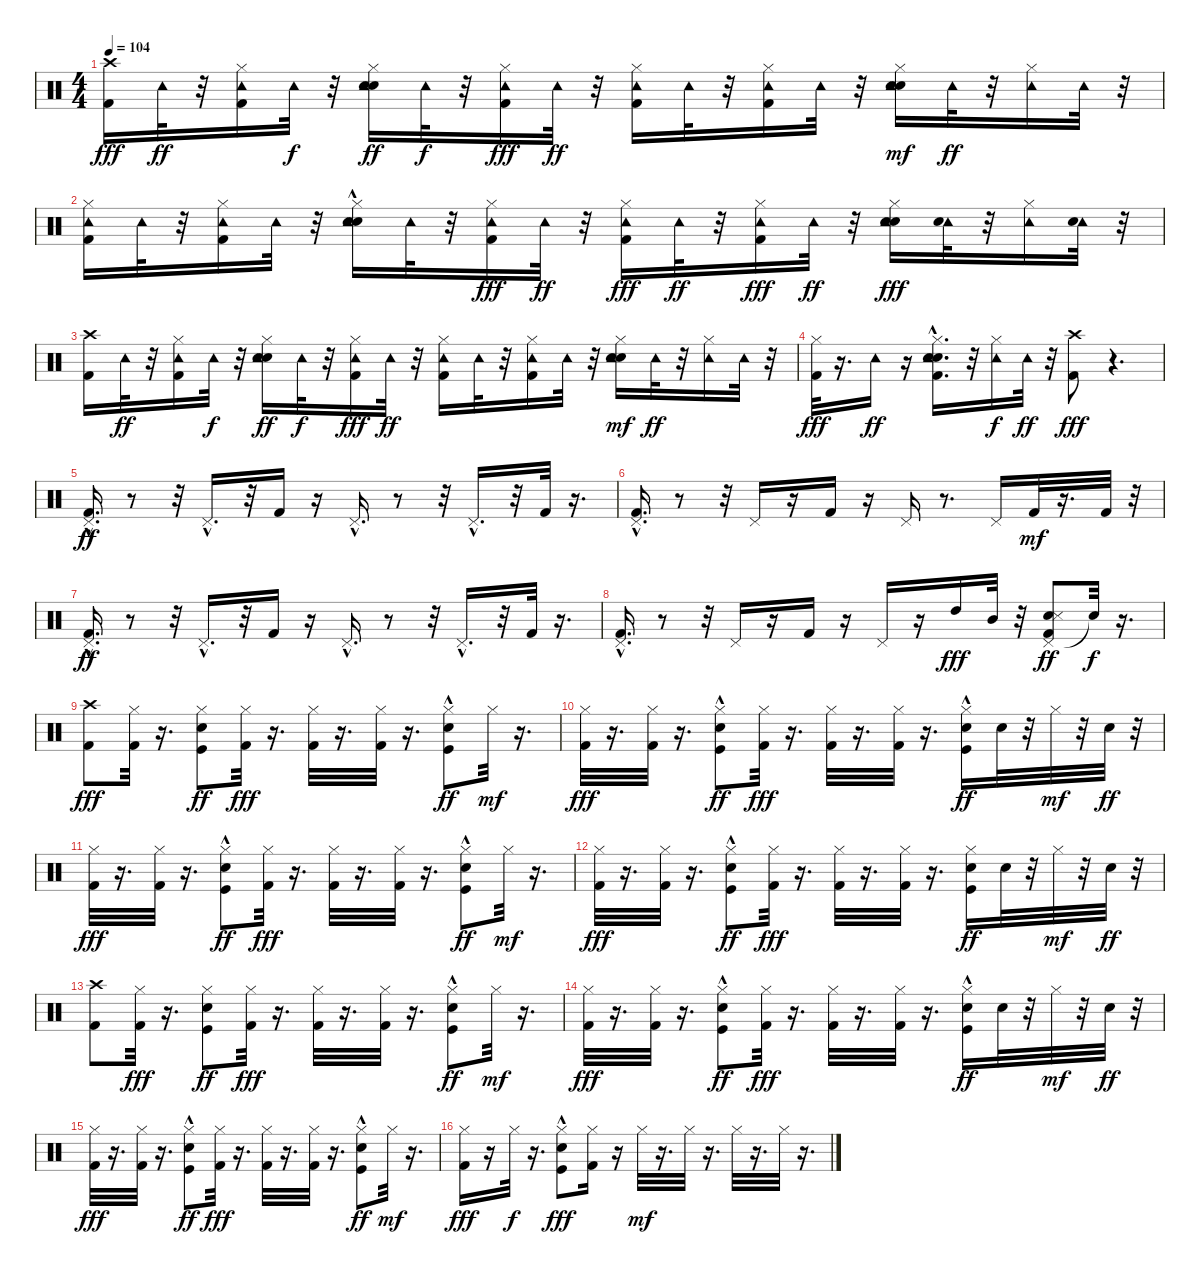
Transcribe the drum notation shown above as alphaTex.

\track "" {instrument percussion}
\staff {score}
\articulation defaults
\ts (4 4)
\tempo 104
\clef neutral
\ks c
("Kick (hit) 2" "Crash high (hit)").16{dy fff} "Tambourine (hit)".32{dy ff} r.32 ("Hi-Hat (closed)" "Kick (hit) 2" "Tambourine (hit)").16 "Tambourine (hit)".32{dy f} r.32 ("Hi-Hat (closed)" "Hand Clap (hit)" "Snare (hit) 2" "Tambourine (hit)").16{dy ff} "Tambourine (hit)".32{dy f} r.32 ("Hi-Hat (closed)" "Kick (hit) 2" "Tambourine (hit)").16{dy fff} "Tambourine (hit)".32{dy ff} r.32 ("Hi-Hat (closed)" "Kick (hit) 2" "Tambourine (hit)").16 "Tambourine (hit)".32 r.32 ("Hi-Hat (closed)" "Kick (hit) 2" "Tambourine (hit)").16 "Tambourine (hit)".32 r.32 ("Hi-Hat (closed)" "Hand Clap (hit)" "Snare (hit) 2" "Tambourine (hit)").16{dy mf} "Tambourine (hit)".32{dy ff} r.32 ("Hi-Hat (closed)" "Tambourine (hit)").16 "Tambourine (hit)".32 r.32 |
("Hi-Hat (closed)" "Kick (hit) 2" "Tambourine (hit)").16 "Tambourine (hit)".32 r.32 ("Hi-Hat (closed)" "Kick (hit) 2" "Tambourine (hit)").16 "Tambourine (hit)".32 r.32 ("Hi-Hat (closed)" "Hand Clap (hit)" "Snare (hit) 2"{hac} "Tambourine (hit)").16 "Tambourine (hit)".32 r.32 ("Hi-Hat (closed)" "Kick (hit) 2" "Tambourine (hit)").16{dy fff} "Tambourine (hit)".32{dy ff} r.32 ("Hi-Hat (closed)" "Kick (hit) 2" "Tambourine (hit)").16{dy fff} "Tambourine (hit)".32{dy ff} r.32 ("Hi-Hat (closed)" "Kick (hit) 2" "Tambourine (hit)").16{dy fff} "Tambourine (hit)".32{dy ff} r.32 ("Hand Clap (hit)" "Hi-Hat (closed)" "Snare (hit) 2" "Tambourine (hit)").16{dy fff} ("Tambourine (hit)" "Electric Snare (hit)").32 r.32 ("Hi-Hat (closed)" "Tambourine (hit)").16 ("Tambourine (hit)" "Electric Snare (hit)").32 r.32 |
("Kick (hit) 2" "Crash high (hit)").16 "Tambourine (hit)".32{dy ff} r.32 ("Hi-Hat (closed)" "Kick (hit) 2" "Tambourine (hit)").16 "Tambourine (hit)".32{dy f} r.32 ("Hi-Hat (closed)" "Hand Clap (hit)" "Snare (hit) 2" "Tambourine (hit)").16{dy ff} "Tambourine (hit)".32{dy f} r.32 ("Hi-Hat (closed)" "Kick (hit) 2" "Tambourine (hit)").16{dy fff} "Tambourine (hit)".32{dy ff} r.32 ("Hi-Hat (closed)" "Kick (hit) 2" "Tambourine (hit)").16 "Tambourine (hit)".32 r.32 ("Hi-Hat (closed)" "Kick (hit) 2" "Tambourine (hit)").16 "Tambourine (hit)".32 r.32 ("Hi-Hat (closed)" "Hand Clap (hit)" "Snare (hit) 2" "Tambourine (hit)").16{dy mf} "Tambourine (hit)".32{dy ff} r.32 ("Hi-Hat (closed)" "Tambourine (hit)").16 "Tambourine (hit)".32 r.32 |
("Hi-Hat (closed)" "Kick (hit) 2").32{dy fff} r.16{d} "Tambourine (hit)".16{dy ff} r.16 ("Hi-Hat (closed)" "Hand Clap (hit)" "Kick (hit) 2" "Snare (hit) 2"{hac} "Tambourine (hit)").16{d} r.32 ("Hi-Hat (closed)" "Tambourine (hit)").16{dy f} "Tambourine (hit)".32{dy ff} r.32 ("Kick (hit) 2" "Crash high (hit)").8{dy fff} r.4{d} |
("Kick (hit) 2" "Pedal Hi-Hat (hit)"{hac}).16{d dy ff} r.8 r.32 "Pedal Hi-Hat (hit)"{hac}.16{d} r.32 "Kick (hit) 2".16 r.16 "Pedal Hi-Hat (hit)"{hac}.16{d} r.8 r.32 "Pedal Hi-Hat (hit)"{hac}.16{d} r.32 "Kick (hit) 2".32 r.16{d} |
("Kick (hit) 2" "Pedal Hi-Hat (hit)"{hac}).16{d} r.8 r.32 "Pedal Hi-Hat (hit)".16 r.16 "Kick (hit) 2".16 r.16 "Pedal Hi-Hat (hit)".16 r.8{d} "Pedal Hi-Hat (hit)".16 "Kick (hit) 2".32{dy mf} r.16{d} "Kick (hit) 2".32 r.32 |
("Kick (hit) 2" "Pedal Hi-Hat (hit)"{hac}).16{d dy ff} r.8 r.32 "Pedal Hi-Hat (hit)"{hac}.16{d} r.32 "Kick (hit) 2".16 r.16 "Pedal Hi-Hat (hit)"{hac}.16{d} r.8 r.32 "Pedal Hi-Hat (hit)"{hac}.16{d} r.32 "Kick (hit) 2".32 r.16{d} |
("Kick (hit) 2" "Pedal Hi-Hat (hit)"{hac}).16{d} r.8 r.32 "Pedal Hi-Hat (hit)".16 r.16 "Kick (hit) 2".16 r.16 "Pedal Hi-Hat (hit)".16 r.16 "High Tom (hit)".16{dy fff} "Mid Tom (hit)".32 r.32 ("Pedal Hi-Hat (hit)" "Kick (hit) 2" "Hand Clap (hit)" "Metronome (hit)").8{dy ff} "Snare (hit)"{t}.32{dy f} r.16{d} |
("Kick (hit) 2" "Crash high (hit)").8{dy fff} ("Hi-Hat (closed)" "Kick (hit) 2").32 r.16{d} ("Hi-Hat (closed)" "Hand Clap (hit)" "Kick (hit)").8{dy ff} ("Hi-Hat (closed)" "Kick (hit) 2").32{dy fff} r.16{d} ("Hi-Hat (closed)" "Kick (hit) 2").32 r.16{d} ("Hi-Hat (closed)" "Kick (hit) 2").32 r.16{d} ("Hi-Hat (closed)" "Hand Clap (hit)" "Kick (hit)"{hac}).8{dy ff} "Hi-Hat (closed)".32{dy mf} r.16{d} |
("Hi-Hat (closed)" "Kick (hit) 2").32{dy fff} r.16{d} ("Hi-Hat (closed)" "Kick (hit) 2").32 r.16{d} ("Hi-Hat (closed)" "Hand Clap (hit)" "Kick (hit)"{hac}).8{dy ff} ("Hi-Hat (closed)" "Kick (hit) 2").32{dy fff} r.16{d} ("Hi-Hat (closed)" "Kick (hit) 2").32 r.16{d} ("Hi-Hat (closed)" "Kick (hit) 2").32 r.16{d} ("Hand Clap (hit)" "Hi-Hat (closed)" "Kick (hit)"{hac}).16{dy ff} "Electric Snare (hit)".32 r.32 "Hi-Hat (closed)".32{dy mf} r.32 "Electric Snare (hit)".32{dy ff} r.32 |
("Hi-Hat (closed)" "Kick (hit) 2").32{dy fff} r.16{d} ("Hi-Hat (closed)" "Kick (hit) 2").32 r.16{d} ("Hand Clap (hit)" "Hi-Hat (closed)" "Kick (hit)"{hac}).8{dy ff} ("Hi-Hat (closed)" "Kick (hit) 2").32{dy fff} r.16{d} ("Hi-Hat (closed)" "Kick (hit) 2").32 r.16{d} ("Hi-Hat (closed)" "Kick (hit) 2").32 r.16{d} ("Hi-Hat (closed)" "Hand Clap (hit)" "Kick (hit)"{hac}).8{dy ff} "Hi-Hat (closed)".32{dy mf} r.16{d} |
("Hi-Hat (closed)" "Kick (hit) 2").32{dy fff} r.16{d} ("Hi-Hat (closed)" "Kick (hit) 2").32 r.16{d} ("Hand Clap (hit)" "Hi-Hat (closed)" "Kick (hit)"{hac}).8{dy ff} ("Hi-Hat (closed)" "Kick (hit) 2").32{dy fff} r.16{d} ("Hi-Hat (closed)" "Kick (hit) 2").32 r.16{d} ("Hi-Hat (closed)" "Kick (hit) 2").32 r.16{d} ("Hi-Hat (closed)" "Hand Clap (hit)" "Kick (hit)").16{dy ff} "Electric Snare (hit)".32 r.32 "Hi-Hat (closed)".32{dy mf} r.32 "Electric Snare (hit)".32{dy ff} r.32 |
("Kick (hit) 2" "Crash high (hit)").8 ("Hi-Hat (closed)" "Kick (hit) 2").32{dy fff} r.16{d} ("Hi-Hat (closed)" "Hand Clap (hit)" "Kick (hit)").8{dy ff} ("Hi-Hat (closed)" "Kick (hit) 2").32{dy fff} r.16{d} ("Hi-Hat (closed)" "Kick (hit) 2").32 r.16{d} ("Hi-Hat (closed)" "Kick (hit) 2").32 r.16{d} ("Hi-Hat (closed)" "Hand Clap (hit)" "Kick (hit)"{hac}).8{dy ff} "Hi-Hat (closed)".32{dy mf} r.16{d} |
("Hi-Hat (closed)" "Kick (hit) 2").32{dy fff} r.16{d} ("Hi-Hat (closed)" "Kick (hit) 2").32 r.16{d} ("Hi-Hat (closed)" "Hand Clap (hit)" "Kick (hit)"{hac}).8{dy ff} ("Hi-Hat (closed)" "Kick (hit) 2").32{dy fff} r.16{d} ("Hi-Hat (closed)" "Kick (hit) 2").32 r.16{d} ("Hi-Hat (closed)" "Kick (hit) 2").32 r.16{d} ("Hand Clap (hit)" "Hi-Hat (closed)" "Kick (hit)"{hac}).16{dy ff} "Electric Snare (hit)".32 r.32 "Hi-Hat (closed)".32{dy mf} r.32 "Electric Snare (hit)".32{dy ff} r.32 |
("Hi-Hat (closed)" "Kick (hit) 2").32{dy fff} r.16{d} ("Hi-Hat (closed)" "Kick (hit) 2").32 r.16{d} ("Hand Clap (hit)" "Hi-Hat (closed)" "Kick (hit)"{hac}).8{dy ff} ("Hi-Hat (closed)" "Kick (hit) 2").32{dy fff} r.16{d} ("Hi-Hat (closed)" "Kick (hit) 2").32 r.16{d} ("Hi-Hat (closed)" "Kick (hit) 2").32 r.16{d} ("Hi-Hat (closed)" "Hand Clap (hit)" "Kick (hit)"{hac}).8{dy ff} "Hi-Hat (closed)".32{dy mf} r.16{d} |
("Hi-Hat (closed)" "Kick (hit) 2").16{dy fff} r.16 "Hi-Hat (closed)".32{dy f} r.16{d} ("Hand Clap (hit)" "Hi-Hat (closed)" "Kick (hit)"{hac}).8{dy fff} ("Hi-Hat (closed)" "Kick (hit) 2").16 r.16 "Hi-Hat (closed)".32{dy mf} r.16{d} "Hi-Hat (closed)".32 r.16{d} "Hi-Hat (closed)".32 r.16{d} "Hi-Hat (closed)".32 r.16{d}
